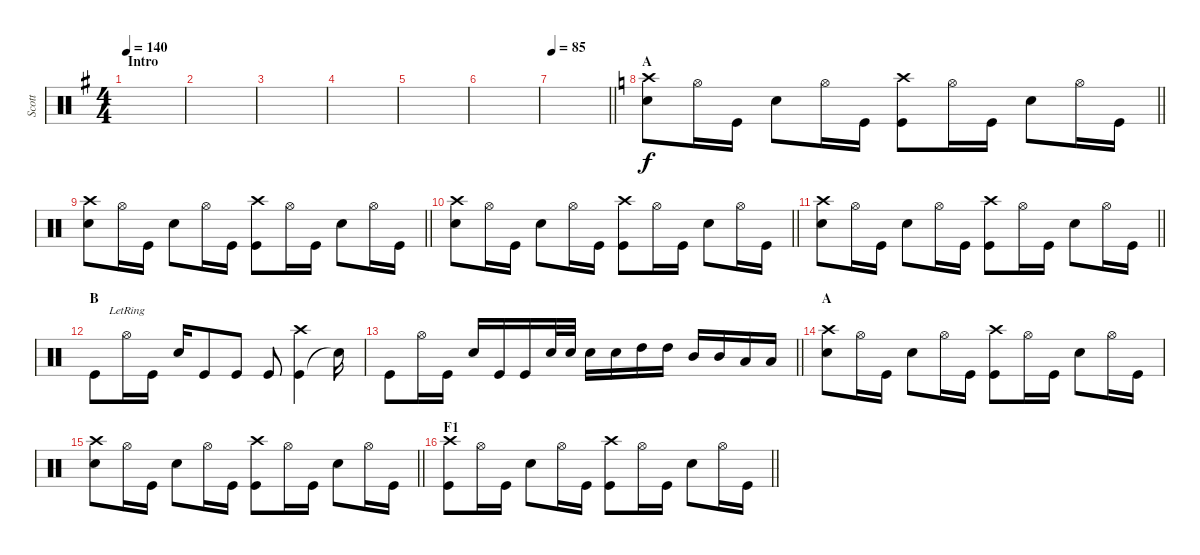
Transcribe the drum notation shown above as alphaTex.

\track ("Scott" "Scott") {instrument percussion}
\staff {score}
\articulation defaults
\ts (4 4)
\section ("" "Intro")
\tempo 140
\clef neutral
\ks g
|
|
|
|
|
|
\tempo 85
\barLineRight lightlight
|
\section ("" "A")
\barLineRight lightlight
\ks c
("Snare (hit) 2" "Crash high (hit)").8 "Hi-Hat (open)".16 "Kick (hit)".16 "Snare (hit) 2".8 "Hi-Hat (open)".16 "Kick (hit)".16 ("Kick (hit)" "Crash high (hit)").8 "Hi-Hat (open)".16 "Kick (hit)".16 "Snare (hit) 2".8 "Hi-Hat (open)".16 "Kick (hit)".16 |
\barLineRight lightlight
("Snare (hit) 2" "Crash high (hit)").8 "Hi-Hat (open)".16 "Kick (hit)".16 "Snare (hit) 2".8 "Hi-Hat (open)".16 "Kick (hit)".16 ("Kick (hit)" "Crash high (hit)").8 "Hi-Hat (open)".16 "Kick (hit)".16 "Snare (hit) 2".8 "Hi-Hat (open)".16 "Kick (hit)".16 |
\barLineRight lightlight
("Snare (hit) 2" "Crash high (hit)").8 "Hi-Hat (open)".16 "Kick (hit)".16 "Snare (hit) 2".8 "Hi-Hat (open)".16 "Kick (hit)".16 ("Kick (hit)" "Crash high (hit)").8 "Hi-Hat (open)".16 "Kick (hit)".16 "Snare (hit) 2".8 "Hi-Hat (open)".16 "Kick (hit)".16 |
\barLineRight lightlight
("Snare (hit) 2" "Crash high (hit)").8 "Hi-Hat (open)".16 "Kick (hit)".16 "Snare (hit) 2".8 "Hi-Hat (open)".16 "Kick (hit)".16 ("Kick (hit)" "Crash high (hit)").8 "Hi-Hat (open)".16 "Kick (hit)".16 "Snare (hit) 2".8 "Hi-Hat (open)".16 "Kick (hit)".16 |
\section ("" "B")
"Kick (hit)".8 "Hi-Hat (open)"{lr}.16 "Kick (hit)".16 "Snare (hit) 2".16 "Kick (hit)".8 "Kick (hit)".8 "Kick (hit)".8 ("Kick (hit)" "Crash high (hit)").4 "Snare (hit)"{t}.16 |
\barLineRight lightlight "Kick (hit)".8 "Hi-Hat (open)".16 "Kick (hit)".16 "Snare (hit) 2".16 "Kick (hit)".16 "Kick (hit)".16 "Snare (hit) 2".32 "Snare (hit) 2".32 "Snare (hit) 2".16 "Snare (hit) 2".16 "High Tom (hit)".16 "High Tom (hit)".16 "Mid Tom (hit)".16 "Mid Tom (hit)".16 "Low Tom (hit)".16 "Low Tom (hit)".16
|
\section ("" "A")
("Snare (hit) 2" "Crash high (hit)").8 "Hi-Hat (open)".16 "Kick (hit)".16 "Snare (hit) 2".8 "Hi-Hat (open)".16 "Kick (hit)".16 ("Kick (hit)" "Crash high (hit)").8 "Hi-Hat (open)".16 "Kick (hit)".16 "Snare (hit) 2".8 "Hi-Hat (open)".16 "Kick (hit)".16 |
\barLineRight lightlight
("Snare (hit) 2" "Crash high (hit)").8 "Hi-Hat (open)".16 "Kick (hit)".16 "Snare (hit) 2".8 "Hi-Hat (open)".16 "Kick (hit)".16 ("Kick (hit)" "Crash high (hit)").8 "Hi-Hat (open)".16 "Kick (hit)".16 "Snare (hit) 2".8 "Hi-Hat (open)".16 "Kick (hit)".16 |
\section ("" "F1")
\barLineRight lightlight
("Kick (hit)" "Crash high (hit)").8 "Hi-Hat (open)".16 "Kick (hit)".16 "Snare (hit) 2".8 "Hi-Hat (open)".16 "Kick (hit)".16 ("Kick (hit)" "Crash high (hit)").8 "Hi-Hat (open)".16 "Kick (hit)".16 "Snare (hit) 2".8 "Hi-Hat (open)".16 "Kick (hit)".16
